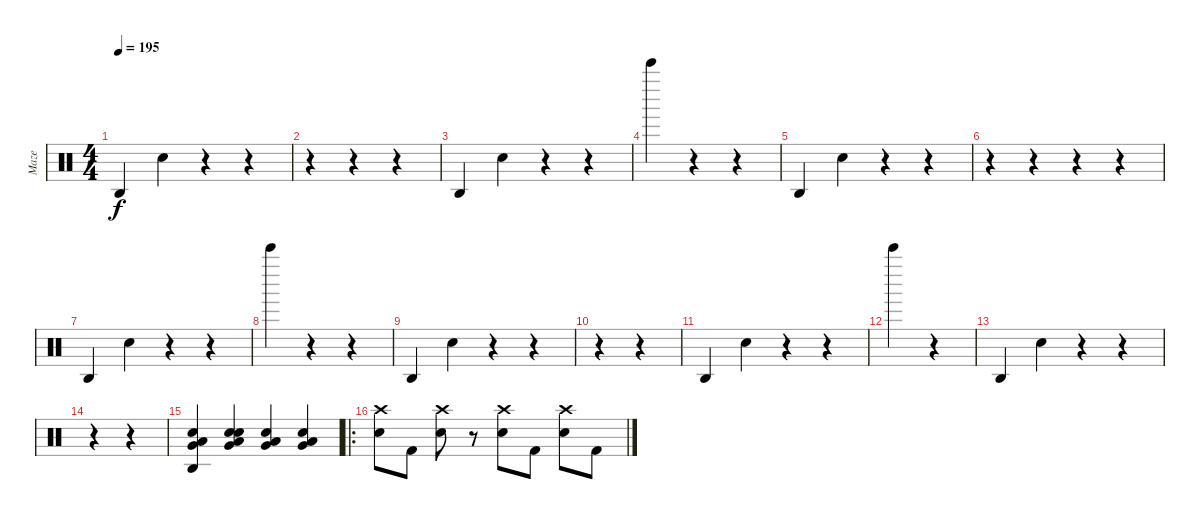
\track ("Maze" "Maze") {instrument percussion}
\staff
\articulation defaults
\ts (4 4)
\tempo 195
\clef neutral
\ks c "Agogo high (hit)".4{dy f} "Metronome (bell)".4
r.4 r.4 |
r.4 r.4 r.4 |
"Agogo high (hit)".4 "Metronome (bell)".4 r.4 r.4 |
"Bell Tree (hit)".4 r.4 r.4 |
"Agogo high (hit)".4 "Metronome (bell)".4 r.4 r.4 |
r.4 r.4 r.4 r.4 |
"Agogo high (hit)".4 "Metronome (bell)".4 r.4 r.4 |
"Bell Tree (hit)".4 r.4 r.4 |
"Agogo high (hit)".4 "Metronome (bell)".4 r.4 r.4 |
r.4 r.4 |
"Agogo high (hit)".4 "Metronome (bell)".4 r.4 r.4 |
"Bell Tree (hit)".4 r.4 |
"Agogo high (hit)".4 "Metronome (bell)".4 r.4 r.4 |
r.4 r.4 |
("Agogo high (hit)" "Snare (hit) 2" "Low Floor Tom (hit)" "Very Low Tom (hit)").4 ("Metronome (bell)" "Snare (hit) 2" "Low Floor Tom (hit)" "Very Low Tom (hit)").4 ("Snare (hit) 2" "Low Floor Tom (hit)" "Very Low Tom (hit)").4 ("Snare (hit) 2" "Low Floor Tom (hit)" "Very Low Tom (hit)").4 |
\ro
("Snare (hit) 2" "Crash high (hit)").8 "Kick (hit) 2".8 ("Snare (hit) 2" "Crash high (hit)").8 r.8 ("Snare (hit) 2" "Crash high (hit)").8 "Kick (hit) 2".8 ("Snare (hit) 2" "Crash high (hit)").8 "Kick (hit) 2".8
